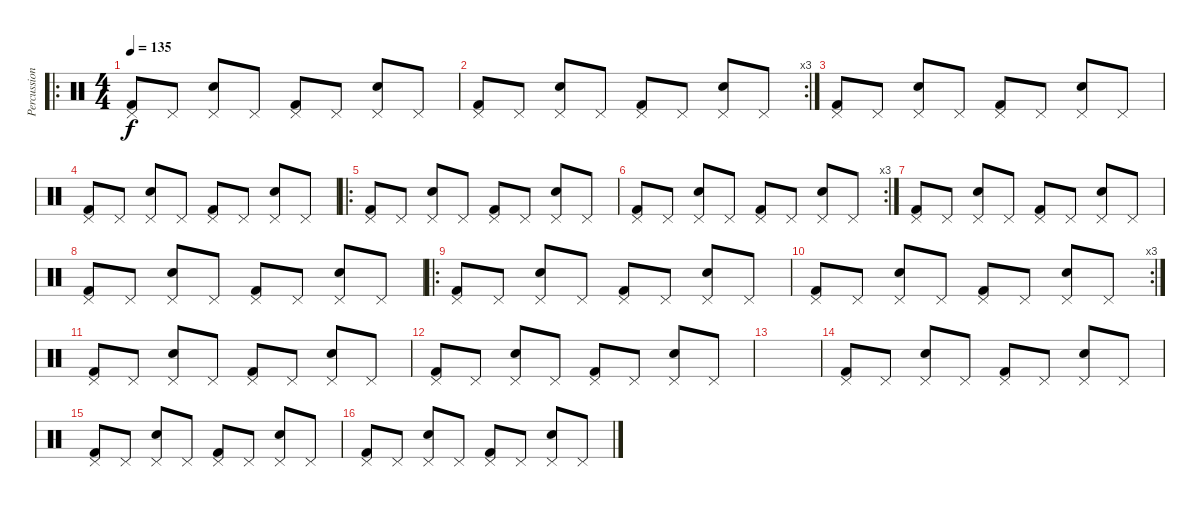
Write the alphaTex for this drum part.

\track ("Percussions" "Percussion") {instrument percussion}
\staff {score}
\articulation defaults
\ro
\ts (4 4)
\tempo 135
\clef neutral
\ks c
("Pedal Hi-Hat (hit)" "Kick (hit) 2").8{dy f} "Pedal Hi-Hat (hit)".8 ("Pedal Hi-Hat (hit)" "Electric Snare (hit)").8 "Pedal Hi-Hat (hit)".8 ("Pedal Hi-Hat (hit)" "Kick (hit) 2").8 "Pedal Hi-Hat (hit)".8 ("Pedal Hi-Hat (hit)" "Electric Snare (hit)").8 "Pedal Hi-Hat (hit)".8 |
\rc 3
("Pedal Hi-Hat (hit)" "Kick (hit) 2").8 "Pedal Hi-Hat (hit)".8 ("Pedal Hi-Hat (hit)" "Electric Snare (hit)").8 "Pedal Hi-Hat (hit)".8 ("Pedal Hi-Hat (hit)" "Kick (hit) 2").8 "Pedal Hi-Hat (hit)".8 ("Pedal Hi-Hat (hit)" "Electric Snare (hit)").8 "Pedal Hi-Hat (hit)".8 |
("Pedal Hi-Hat (hit)" "Kick (hit) 2").8 "Pedal Hi-Hat (hit)".8 ("Pedal Hi-Hat (hit)" "Electric Snare (hit)").8 "Pedal Hi-Hat (hit)".8 ("Pedal Hi-Hat (hit)" "Kick (hit) 2").8 "Pedal Hi-Hat (hit)".8 ("Pedal Hi-Hat (hit)" "Electric Snare (hit)").8 "Pedal Hi-Hat (hit)".8 |
("Pedal Hi-Hat (hit)" "Kick (hit) 2").8 "Pedal Hi-Hat (hit)".8 ("Pedal Hi-Hat (hit)" "Electric Snare (hit)").8 "Pedal Hi-Hat (hit)".8 ("Pedal Hi-Hat (hit)" "Kick (hit) 2").8 "Pedal Hi-Hat (hit)".8 ("Pedal Hi-Hat (hit)" "Electric Snare (hit)").8 "Pedal Hi-Hat (hit)".8 |
\ro
("Pedal Hi-Hat (hit)" "Kick (hit) 2").8 "Pedal Hi-Hat (hit)".8 ("Pedal Hi-Hat (hit)" "Electric Snare (hit)").8 "Pedal Hi-Hat (hit)".8 ("Pedal Hi-Hat (hit)" "Kick (hit) 2").8 "Pedal Hi-Hat (hit)".8 ("Pedal Hi-Hat (hit)" "Electric Snare (hit)").8 "Pedal Hi-Hat (hit)".8 |
\rc 3
("Pedal Hi-Hat (hit)" "Kick (hit) 2").8 "Pedal Hi-Hat (hit)".8 ("Pedal Hi-Hat (hit)" "Electric Snare (hit)").8 "Pedal Hi-Hat (hit)".8 ("Pedal Hi-Hat (hit)" "Kick (hit) 2").8 "Pedal Hi-Hat (hit)".8 ("Pedal Hi-Hat (hit)" "Electric Snare (hit)").8 "Pedal Hi-Hat (hit)".8 |
("Pedal Hi-Hat (hit)" "Kick (hit) 2").8 "Pedal Hi-Hat (hit)".8 ("Pedal Hi-Hat (hit)" "Electric Snare (hit)").8 "Pedal Hi-Hat (hit)".8 ("Pedal Hi-Hat (hit)" "Kick (hit) 2").8 "Pedal Hi-Hat (hit)".8 ("Pedal Hi-Hat (hit)" "Electric Snare (hit)").8 "Pedal Hi-Hat (hit)".8 |
("Pedal Hi-Hat (hit)" "Kick (hit) 2").8 "Pedal Hi-Hat (hit)".8 ("Pedal Hi-Hat (hit)" "Electric Snare (hit)").8 "Pedal Hi-Hat (hit)".8 ("Pedal Hi-Hat (hit)" "Kick (hit) 2").8 "Pedal Hi-Hat (hit)".8 ("Pedal Hi-Hat (hit)" "Electric Snare (hit)").8 "Pedal Hi-Hat (hit)".8 |
\ro
("Pedal Hi-Hat (hit)" "Kick (hit) 2").8 "Pedal Hi-Hat (hit)".8 ("Pedal Hi-Hat (hit)" "Electric Snare (hit)").8 "Pedal Hi-Hat (hit)".8 ("Pedal Hi-Hat (hit)" "Kick (hit) 2").8 "Pedal Hi-Hat (hit)".8 ("Pedal Hi-Hat (hit)" "Electric Snare (hit)").8 "Pedal Hi-Hat (hit)".8 |
\rc 3
("Pedal Hi-Hat (hit)" "Kick (hit) 2").8 "Pedal Hi-Hat (hit)".8 ("Pedal Hi-Hat (hit)" "Electric Snare (hit)").8 "Pedal Hi-Hat (hit)".8 ("Pedal Hi-Hat (hit)" "Kick (hit) 2").8 "Pedal Hi-Hat (hit)".8 ("Pedal Hi-Hat (hit)" "Electric Snare (hit)").8 "Pedal Hi-Hat (hit)".8 |
("Pedal Hi-Hat (hit)" "Kick (hit) 2").8 "Pedal Hi-Hat (hit)".8 ("Pedal Hi-Hat (hit)" "Electric Snare (hit)").8 "Pedal Hi-Hat (hit)".8 ("Pedal Hi-Hat (hit)" "Kick (hit) 2").8 "Pedal Hi-Hat (hit)".8 ("Pedal Hi-Hat (hit)" "Electric Snare (hit)").8 "Pedal Hi-Hat (hit)".8 |
("Pedal Hi-Hat (hit)" "Kick (hit) 2").8 "Pedal Hi-Hat (hit)".8 ("Pedal Hi-Hat (hit)" "Electric Snare (hit)").8 "Pedal Hi-Hat (hit)".8 ("Pedal Hi-Hat (hit)" "Kick (hit) 2").8 "Pedal Hi-Hat (hit)".8 ("Pedal Hi-Hat (hit)" "Electric Snare (hit)").8 "Pedal Hi-Hat (hit)".8 |
|
("Pedal Hi-Hat (hit)" "Kick (hit) 2").8 "Pedal Hi-Hat (hit)".8 ("Pedal Hi-Hat (hit)" "Electric Snare (hit)").8 "Pedal Hi-Hat (hit)".8 ("Pedal Hi-Hat (hit)" "Kick (hit) 2").8 "Pedal Hi-Hat (hit)".8 ("Pedal Hi-Hat (hit)" "Electric Snare (hit)").8 "Pedal Hi-Hat (hit)".8 |
("Pedal Hi-Hat (hit)" "Kick (hit) 2").8 "Pedal Hi-Hat (hit)".8 ("Pedal Hi-Hat (hit)" "Electric Snare (hit)").8 "Pedal Hi-Hat (hit)".8 ("Pedal Hi-Hat (hit)" "Kick (hit) 2").8 "Pedal Hi-Hat (hit)".8 ("Pedal Hi-Hat (hit)" "Electric Snare (hit)").8 "Pedal Hi-Hat (hit)".8 |
("Pedal Hi-Hat (hit)" "Kick (hit) 2").8 "Pedal Hi-Hat (hit)".8 ("Pedal Hi-Hat (hit)" "Electric Snare (hit)").8 "Pedal Hi-Hat (hit)".8 ("Pedal Hi-Hat (hit)" "Kick (hit) 2").8 "Pedal Hi-Hat (hit)".8 ("Pedal Hi-Hat (hit)" "Electric Snare (hit)").8 "Pedal Hi-Hat (hit)".8
